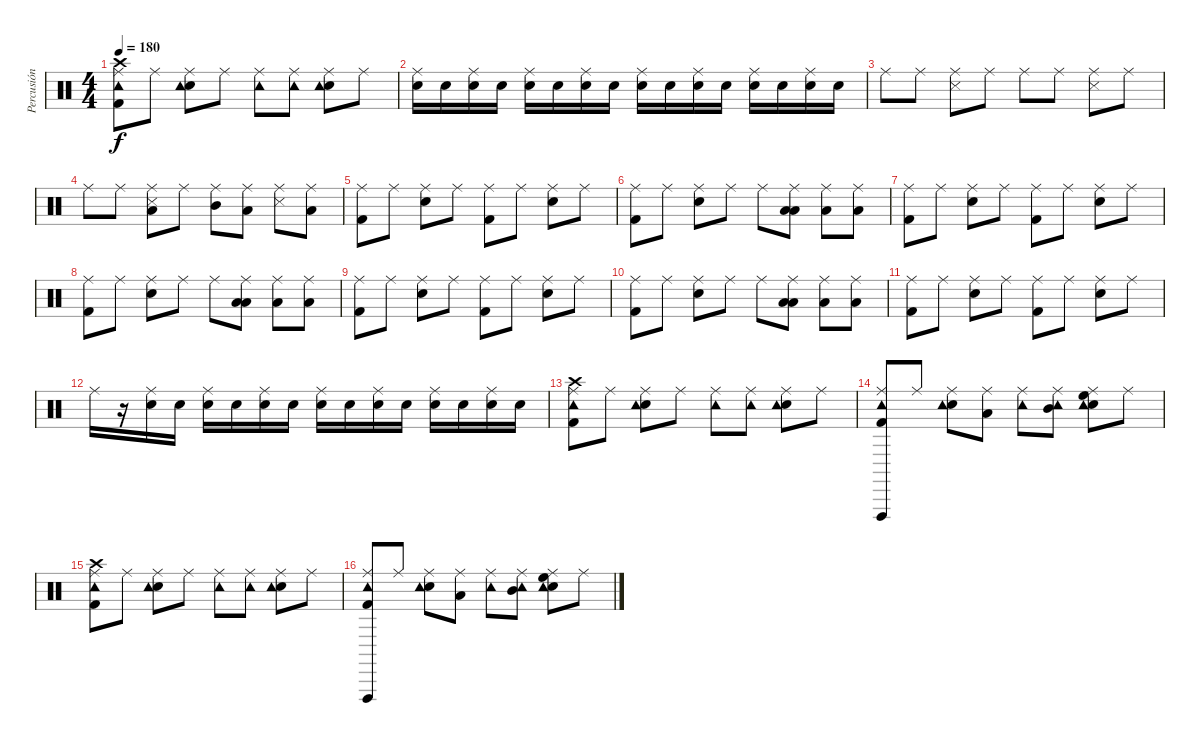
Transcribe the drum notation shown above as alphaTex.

\track ("Percusión" "Percusión") {instrument percussion}
\staff {score}
\articulation defaults
\ts (4 4)
\tempo 180
\clef neutral
\ks c
("Crash high (hit)" "Ride (middle)" "Kick (hit) 2" "Tambourine (hit)").8{dy f} "Ride (middle)".8 ("Electric Snare (hit)" "Ride (middle)" "Tambourine (hit)").8 "Ride (middle)".8 ("Ride (middle)" "Tambourine (hit)").8 ("Ride (middle)" "Tambourine (hit)").8 ("Electric Snare (hit)" "Ride (middle)" "Tambourine (hit)").8 "Ride (middle)".8 |
("Ride (middle)" "Electric Snare (hit)").16 "Electric Snare (hit)".16 ("Ride (middle)" "Electric Snare (hit)").16 "Electric Snare (hit)".16 ("Ride (middle)" "Electric Snare (hit)").16 "Electric Snare (hit)".16 ("Ride (middle)" "Electric Snare (hit)").16 "Electric Snare (hit)".16 ("Ride (middle)" "Electric Snare (hit)").16 "Electric Snare (hit)".16 ("Ride (middle)" "Electric Snare (hit)").16 "Electric Snare (hit)".16 ("Ride (middle)" "Electric Snare (hit)").16 "Electric Snare (hit)".16 ("Ride (middle)" "Electric Snare (hit)").16 "Electric Snare (hit)".16 |
"Ride (middle)".8 "Ride (middle)".8 ("Snare (side stick) 3" "Ride (middle)").8 "Ride (middle)".8 "Ride (middle)".8 "Ride (middle)".8 ("Snare (side stick) 3" "Ride (middle)").8 "Ride (middle)".8 |
"Ride (middle)".8 "Ride (middle)".8 ("Snare (side stick) 3" "Ride (middle)" "Low Floor Tom (hit)").8 "Ride (middle)".8 ("Ride (middle)" "Mid Tom (hit)").8 ("Ride (middle)" "Low Tom (hit)").8 ("Snare (side stick) 3" "Ride (middle)").8 ("Ride (middle)" "Low Tom (hit)").8 |
("Kick (hit) 2" "Ride (middle)").8 "Ride (middle)".8 ("Electric Snare (hit)" "Ride (middle)").8 "Ride (middle)".8 ("Kick (hit) 2" "Ride (middle)").8 "Ride (middle)".8 ("Electric Snare (hit)" "Ride (middle)").8 "Ride (middle)".8 |
("Kick (hit) 2" "Ride (middle)").8 "Ride (middle)".8 ("Electric Snare (hit)" "Ride (middle)").8 "Ride (middle)".8 "Ride (middle)".8 ("Low Floor Tom (hit)" "Ride (middle)" "Low Tom (hit)").8 ("Ride (middle)" "Low Tom (hit)").8 ("Ride (middle)" "Low Tom (hit)").8 |
("Kick (hit) 2" "Ride (middle)").8 "Ride (middle)".8 ("Electric Snare (hit)" "Ride (middle)").8 "Ride (middle)".8 ("Kick (hit) 2" "Ride (middle)").8 "Ride (middle)".8 ("Electric Snare (hit)" "Ride (middle)").8 "Ride (middle)".8 |
("Kick (hit) 2" "Ride (middle)").8 "Ride (middle)".8 ("Electric Snare (hit)" "Ride (middle)").8 "Ride (middle)".8 "Ride (middle)".8 ("Low Floor Tom (hit)" "Ride (middle)" "Low Tom (hit)").8 ("Ride (middle)" "Low Tom (hit)").8 ("Ride (middle)" "Low Tom (hit)").8 |
("Kick (hit) 2" "Ride (middle)").8 "Ride (middle)".8 ("Electric Snare (hit)" "Ride (middle)").8 "Ride (middle)".8 ("Kick (hit) 2" "Ride (middle)").8 "Ride (middle)".8 ("Electric Snare (hit)" "Ride (middle)").8 "Ride (middle)".8 |
("Kick (hit) 2" "Ride (middle)").8 "Ride (middle)".8 ("Electric Snare (hit)" "Ride (middle)").8 "Ride (middle)".8 "Ride (middle)".8 ("Low Floor Tom (hit)" "Ride (middle)" "Low Tom (hit)").8 ("Ride (middle)" "Low Tom (hit)").8 ("Ride (middle)" "Low Tom (hit)").8 |
("Kick (hit) 2" "Ride (middle)").8 "Ride (middle)".8 ("Electric Snare (hit)" "Ride (middle)").8 "Ride (middle)".8 ("Kick (hit) 2" "Ride (middle)").8 "Ride (middle)".8 ("Electric Snare (hit)" "Ride (middle)").8 "Ride (middle)".8 |
"Ride (middle)".16 r.16 ("Ride (middle)" "Electric Snare (hit)").16 "Electric Snare (hit)".16 ("Ride (middle)" "Electric Snare (hit)").16 "Electric Snare (hit)".16 ("Ride (middle)" "Electric Snare (hit)").16 "Electric Snare (hit)".16 ("Ride (middle)" "Electric Snare (hit)").16 "Electric Snare (hit)".16 ("Ride (middle)" "Electric Snare (hit)").16 "Electric Snare (hit)".16 ("Ride (middle)" "Electric Snare (hit)").16 "Electric Snare (hit)".16 ("Ride (middle)" "Electric Snare (hit)").16 "Electric Snare (hit)".16 |
("Crash high (hit)" "Ride (middle)" "Kick (hit) 2" "Tambourine (hit)").8 "Ride (middle)".8 ("Electric Snare (hit)" "Ride (middle)" "Tambourine (hit)").8 "Ride (middle)".8 ("Ride (middle)" "Tambourine (hit)").8 ("Ride (middle)" "Tambourine (hit)").8 ("Electric Snare (hit)" "Ride (middle)" "Tambourine (hit)").8 "Ride (middle)".8 |
("Kick (hit) 2" "Tambourine (hit)" "Ride (middle)" "Vibraslap (hit)").8 "Ride (middle)".8 ("Electric Snare (hit)" "Ride (middle)" "Tambourine (hit)").8 ("Ride (middle)" "Low Tom (hit)").8 ("Ride (middle)" "Tambourine (hit)").8 ("Ride (middle)" "Tambourine (hit)" "Mid Tom (hit)").8 ("Electric Snare (hit)" "Ride (middle)" "Tambourine (hit)" "High Floor Tom (hit)").8 "Ride (middle)".8 |
("Crash high (hit)" "Ride (middle)" "Kick (hit) 2" "Tambourine (hit)").8 "Ride (middle)".8 ("Electric Snare (hit)" "Ride (middle)" "Tambourine (hit)").8 "Ride (middle)".8 ("Ride (middle)" "Tambourine (hit)").8 ("Ride (middle)" "Tambourine (hit)").8 ("Electric Snare (hit)" "Ride (middle)" "Tambourine (hit)").8 "Ride (middle)".8 |
("Kick (hit) 2" "Tambourine (hit)" "Ride (middle)" "Vibraslap (hit)").8 "Ride (middle)".8 ("Electric Snare (hit)" "Ride (middle)" "Tambourine (hit)").8 ("Ride (middle)" "Low Tom (hit)").8 ("Ride (middle)" "Tambourine (hit)").8 ("Ride (middle)" "Tambourine (hit)" "Mid Tom (hit)").8 ("Electric Snare (hit)" "Ride (middle)" "Tambourine (hit)" "High Floor Tom (hit)").8 "Ride (middle)".8
